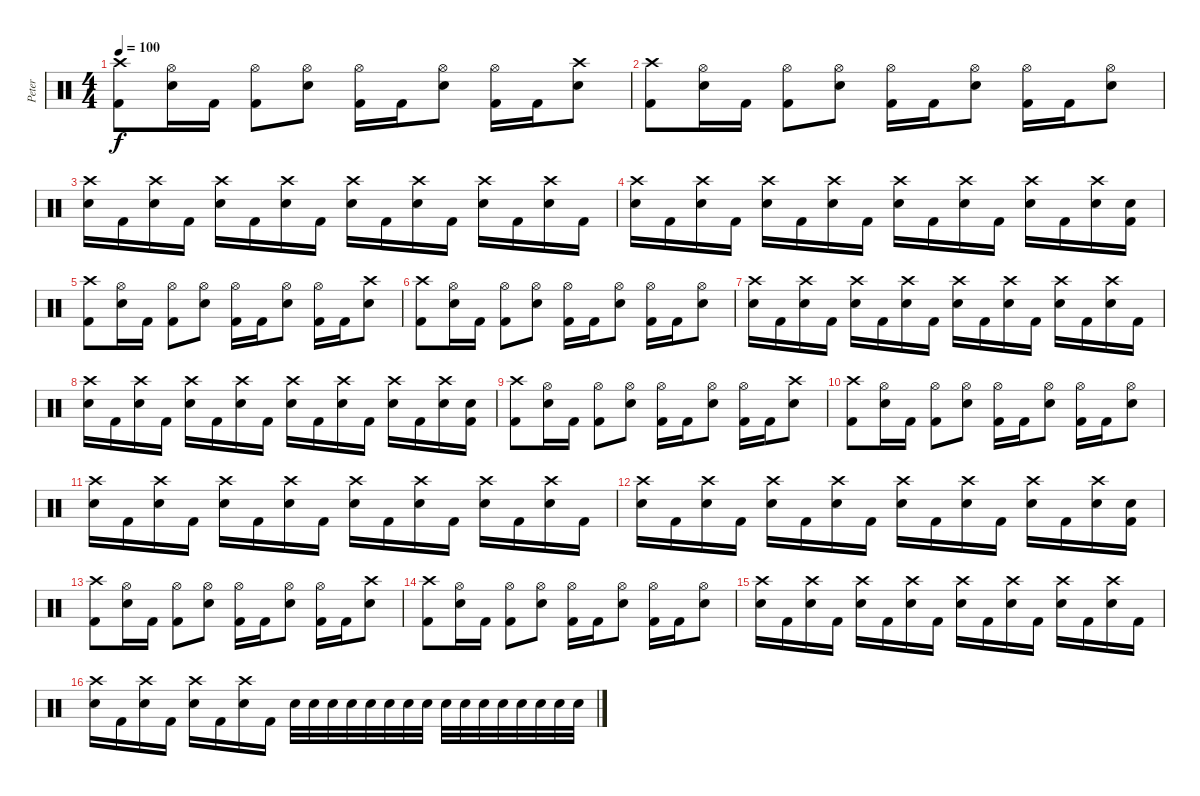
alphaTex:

\track ("Peter" "Peter") {instrument percussion}
\staff {score}
\articulation defaults
\ts (4 4)
\tempo 100
\clef neutral
\ks c
("Kick (hit) 2" "Crash high (hit)").8{dy f} ("Electric Snare (hit)" "Hi-Hat (open)").16 "Kick (hit) 2".16 ("Kick (hit) 2" "Hi-Hat (open)").8 ("Electric Snare (hit)" "Hi-Hat (open)").8 ("Kick (hit) 2" "Hi-Hat (open)").16 "Kick (hit) 2".16 ("Electric Snare (hit)" "Hi-Hat (open)").8 ("Kick (hit) 2" "Hi-Hat (open)").16 "Kick (hit) 2".16 ("Electric Snare (hit)" "Crash high (hit)").8 |
("Kick (hit) 2" "Crash high (hit)").8 ("Electric Snare (hit)" "Hi-Hat (open)").16 "Kick (hit) 2".16 ("Kick (hit) 2" "Hi-Hat (open)").8 ("Electric Snare (hit)" "Hi-Hat (open)").8 ("Kick (hit) 2" "Hi-Hat (open)").16 "Kick (hit) 2".16 ("Electric Snare (hit)" "Hi-Hat (open)").8 ("Kick (hit) 2" "Hi-Hat (open)").16 "Kick (hit) 2".16 ("Electric Snare (hit)" "Hi-Hat (open)").8 |
("Electric Snare (hit)" "Crash high (hit)").16 "Kick (hit) 2".16 ("Electric Snare (hit)" "Crash high (hit)").16 "Kick (hit) 2".16 ("Electric Snare (hit)" "Crash high (hit)").16 "Kick (hit) 2".16 ("Electric Snare (hit)" "Crash high (hit)").16 "Kick (hit) 2".16 ("Electric Snare (hit)" "Crash high (hit)").16 "Kick (hit) 2".16 ("Electric Snare (hit)" "Crash high (hit)").16 "Kick (hit) 2".16 ("Electric Snare (hit)" "Crash high (hit)").16 "Kick (hit) 2".16 ("Electric Snare (hit)" "Crash high (hit)").16 "Kick (hit) 2".16 |
("Electric Snare (hit)" "Crash high (hit)").16 "Kick (hit) 2".16 ("Electric Snare (hit)" "Crash high (hit)").16 "Kick (hit) 2".16 ("Electric Snare (hit)" "Crash high (hit)").16 "Kick (hit) 2".16 ("Electric Snare (hit)" "Crash high (hit)").16 "Kick (hit) 2".16 ("Electric Snare (hit)" "Crash high (hit)").16 "Kick (hit) 2".16 ("Electric Snare (hit)" "Crash high (hit)").16 "Kick (hit) 2".16 ("Electric Snare (hit)" "Crash high (hit)").16 "Kick (hit) 2".16 ("Electric Snare (hit)" "Crash high (hit)").16 ("Kick (hit) 2" "Electric Snare (hit)").16 |
("Kick (hit) 2" "Crash high (hit)").8 ("Electric Snare (hit)" "Hi-Hat (open)").16 "Kick (hit) 2".16 ("Kick (hit) 2" "Hi-Hat (open)").8 ("Electric Snare (hit)" "Hi-Hat (open)").8 ("Kick (hit) 2" "Hi-Hat (open)").16 "Kick (hit) 2".16 ("Electric Snare (hit)" "Hi-Hat (open)").8 ("Kick (hit) 2" "Hi-Hat (open)").16 "Kick (hit) 2".16 ("Electric Snare (hit)" "Crash high (hit)").8 |
("Kick (hit) 2" "Crash high (hit)").8 ("Electric Snare (hit)" "Hi-Hat (open)").16 "Kick (hit) 2".16 ("Kick (hit) 2" "Hi-Hat (open)").8 ("Electric Snare (hit)" "Hi-Hat (open)").8 ("Kick (hit) 2" "Hi-Hat (open)").16 "Kick (hit) 2".16 ("Electric Snare (hit)" "Hi-Hat (open)").8 ("Kick (hit) 2" "Hi-Hat (open)").16 "Kick (hit) 2".16 ("Electric Snare (hit)" "Hi-Hat (open)").8 |
("Electric Snare (hit)" "Crash high (hit)").16 "Kick (hit) 2".16 ("Electric Snare (hit)" "Crash high (hit)").16 "Kick (hit) 2".16 ("Electric Snare (hit)" "Crash high (hit)").16 "Kick (hit) 2".16 ("Electric Snare (hit)" "Crash high (hit)").16 "Kick (hit) 2".16 ("Electric Snare (hit)" "Crash high (hit)").16 "Kick (hit) 2".16 ("Electric Snare (hit)" "Crash high (hit)").16 "Kick (hit) 2".16 ("Electric Snare (hit)" "Crash high (hit)").16 "Kick (hit) 2".16 ("Electric Snare (hit)" "Crash high (hit)").16 "Kick (hit) 2".16 |
("Electric Snare (hit)" "Crash high (hit)").16 "Kick (hit) 2".16 ("Electric Snare (hit)" "Crash high (hit)").16 "Kick (hit) 2".16 ("Electric Snare (hit)" "Crash high (hit)").16 "Kick (hit) 2".16 ("Electric Snare (hit)" "Crash high (hit)").16 "Kick (hit) 2".16 ("Electric Snare (hit)" "Crash high (hit)").16 "Kick (hit) 2".16 ("Electric Snare (hit)" "Crash high (hit)").16 "Kick (hit) 2".16 ("Electric Snare (hit)" "Crash high (hit)").16 "Kick (hit) 2".16 ("Electric Snare (hit)" "Crash high (hit)").16 ("Kick (hit) 2" "Electric Snare (hit)").16 |
("Kick (hit) 2" "Crash high (hit)").8 ("Electric Snare (hit)" "Hi-Hat (open)").16 "Kick (hit) 2".16 ("Kick (hit) 2" "Hi-Hat (open)").8 ("Electric Snare (hit)" "Hi-Hat (open)").8 ("Kick (hit) 2" "Hi-Hat (open)").16 "Kick (hit) 2".16 ("Electric Snare (hit)" "Hi-Hat (open)").8 ("Kick (hit) 2" "Hi-Hat (open)").16 "Kick (hit) 2".16 ("Electric Snare (hit)" "Crash high (hit)").8 |
("Kick (hit) 2" "Crash high (hit)").8 ("Electric Snare (hit)" "Hi-Hat (open)").16 "Kick (hit) 2".16 ("Kick (hit) 2" "Hi-Hat (open)").8 ("Electric Snare (hit)" "Hi-Hat (open)").8 ("Kick (hit) 2" "Hi-Hat (open)").16 "Kick (hit) 2".16 ("Electric Snare (hit)" "Hi-Hat (open)").8 ("Kick (hit) 2" "Hi-Hat (open)").16 "Kick (hit) 2".16 ("Electric Snare (hit)" "Hi-Hat (open)").8 |
("Electric Snare (hit)" "Crash high (hit)").16 "Kick (hit) 2".16 ("Electric Snare (hit)" "Crash high (hit)").16 "Kick (hit) 2".16 ("Electric Snare (hit)" "Crash high (hit)").16 "Kick (hit) 2".16 ("Electric Snare (hit)" "Crash high (hit)").16 "Kick (hit) 2".16 ("Electric Snare (hit)" "Crash high (hit)").16 "Kick (hit) 2".16 ("Electric Snare (hit)" "Crash high (hit)").16 "Kick (hit) 2".16 ("Electric Snare (hit)" "Crash high (hit)").16 "Kick (hit) 2".16 ("Electric Snare (hit)" "Crash high (hit)").16 "Kick (hit) 2".16 |
("Electric Snare (hit)" "Crash high (hit)").16 "Kick (hit) 2".16 ("Electric Snare (hit)" "Crash high (hit)").16 "Kick (hit) 2".16 ("Electric Snare (hit)" "Crash high (hit)").16 "Kick (hit) 2".16 ("Electric Snare (hit)" "Crash high (hit)").16 "Kick (hit) 2".16 ("Electric Snare (hit)" "Crash high (hit)").16 "Kick (hit) 2".16 ("Electric Snare (hit)" "Crash high (hit)").16 "Kick (hit) 2".16 ("Electric Snare (hit)" "Crash high (hit)").16 "Kick (hit) 2".16 ("Electric Snare (hit)" "Crash high (hit)").16 ("Kick (hit) 2" "Electric Snare (hit)").16 |
("Kick (hit) 2" "Crash high (hit)").8 ("Electric Snare (hit)" "Hi-Hat (open)").16 "Kick (hit) 2".16 ("Kick (hit) 2" "Hi-Hat (open)").8 ("Electric Snare (hit)" "Hi-Hat (open)").8 ("Kick (hit) 2" "Hi-Hat (open)").16 "Kick (hit) 2".16 ("Electric Snare (hit)" "Hi-Hat (open)").8 ("Kick (hit) 2" "Hi-Hat (open)").16 "Kick (hit) 2".16 ("Electric Snare (hit)" "Crash high (hit)").8 |
("Kick (hit) 2" "Crash high (hit)").8 ("Electric Snare (hit)" "Hi-Hat (open)").16 "Kick (hit) 2".16 ("Kick (hit) 2" "Hi-Hat (open)").8 ("Electric Snare (hit)" "Hi-Hat (open)").8 ("Kick (hit) 2" "Hi-Hat (open)").16 "Kick (hit) 2".16 ("Electric Snare (hit)" "Hi-Hat (open)").8 ("Kick (hit) 2" "Hi-Hat (open)").16 "Kick (hit) 2".16 ("Electric Snare (hit)" "Hi-Hat (open)").8 |
("Electric Snare (hit)" "Crash high (hit)").16 "Kick (hit) 2".16 ("Electric Snare (hit)" "Crash high (hit)").16 "Kick (hit) 2".16 ("Electric Snare (hit)" "Crash high (hit)").16 "Kick (hit) 2".16 ("Electric Snare (hit)" "Crash high (hit)").16 "Kick (hit) 2".16 ("Electric Snare (hit)" "Crash high (hit)").16 "Kick (hit) 2".16 ("Electric Snare (hit)" "Crash high (hit)").16 "Kick (hit) 2".16 ("Electric Snare (hit)" "Crash high (hit)").16 "Kick (hit) 2".16 ("Electric Snare (hit)" "Crash high (hit)").16 "Kick (hit) 2".16 |
("Electric Snare (hit)" "Crash high (hit)").16 "Kick (hit) 2".16 ("Electric Snare (hit)" "Crash high (hit)").16 "Kick (hit) 2".16 ("Electric Snare (hit)" "Crash high (hit)").16 "Kick (hit) 2".16 ("Electric Snare (hit)" "Crash high (hit)").16 "Kick (hit) 2".16 "Electric Snare (hit)".32 "Electric Snare (hit)".32 "Electric Snare (hit)".32 "Electric Snare (hit)".32 "Electric Snare (hit)".32 "Electric Snare (hit)".32 "Electric Snare (hit)".32 "Electric Snare (hit)".32 "Electric Snare (hit)".32 "Electric Snare (hit)".32 "Electric Snare (hit)".32 "Electric Snare (hit)".32 "Electric Snare (hit)".32 "Electric Snare (hit)".32 "Electric Snare (hit)".32 "Electric Snare (hit)".32
